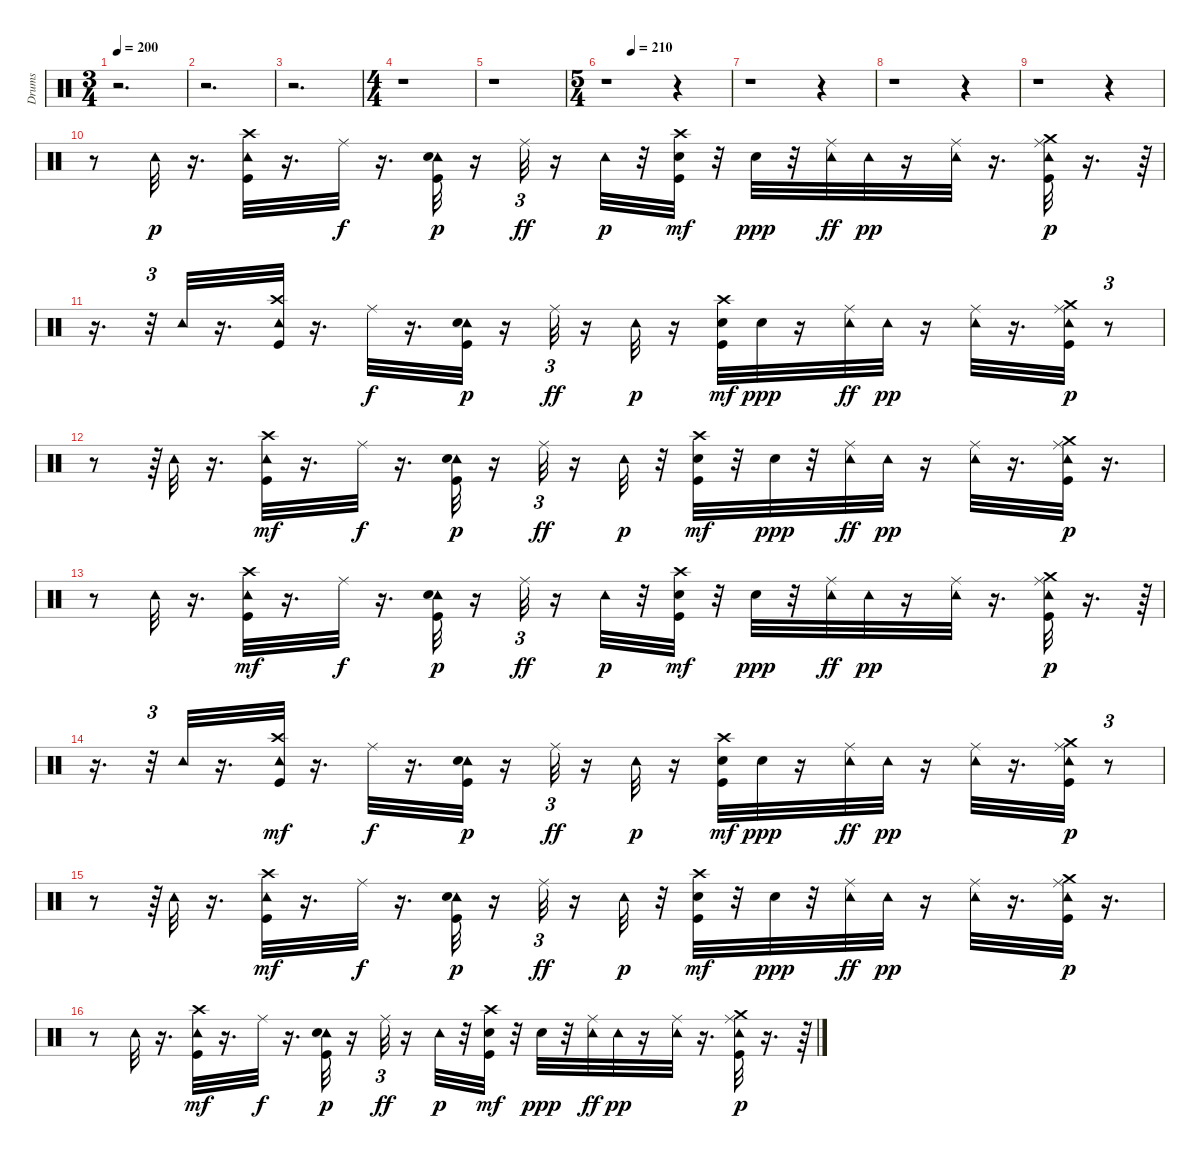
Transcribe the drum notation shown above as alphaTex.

\track ("Drums" "Drums") {instrument percussion}
\staff {score}
\articulation defaults
\ts (3 4)
\tempo 200
\clef neutral
\ks c
r.2{d dy f} |
r.2{d} |
r.2{d} |
\ts (4 4)
r.1 |
r.1 |
\ts (5 4)
\tempo (210 0.20833333333333334)
r.1 r.4 |
r.1 r.4 |
r.1 r.4 |
r.1 r.4 |
r.8 "Tambourine (hit)".32{dy p} r.16{d} ("Crash high (hit)" "Tambourine (hit)" "Kick (hit)").32 r.16{d} "Ride (middle)".32{dy f} r.16{d} ("Tambourine (hit)" "Snare (hit) 2" "Kick (hit)").32{dy p} r.16 "Ride (middle)".32{tu (3 2) dy ff} r.16 "Tambourine (hit)".32{dy p} r.32 ("Kick (hit)" "Snare (hit) 2" "Crash high (hit)").32{dy mf} r.32 "Snare (hit)".32{dy ppp} r.32 ("Tambourine (hit)" "Ride (middle)").32{dy ff} "Tambourine (hit)".32{dy pp} r.16 ("Ride (middle)" "Tambourine (hit)").32 r.16{d} ("Crash medium (hit)" "Tambourine (hit)" "Ride (middle)" "Kick (hit)").32{dy p} r.16{d} r.64{tu (3 2)} |
r.16{d} r.32{tu (3 2)} "Tambourine (hit)".32 r.16{d} ("Crash high (hit)" "Tambourine (hit)" "Kick (hit)").32 r.16{d} "Ride (middle)".32{dy f} r.16{d} ("Tambourine (hit)" "Snare (hit) 2" "Kick (hit)").32{dy p} r.16 "Ride (middle)".32{tu (3 2) dy ff} r.16 "Tambourine (hit)".32{dy p} r.16 ("Kick (hit)" "Snare (hit) 2" "Crash high (hit)").32{dy mf} "Snare (hit)".32{dy ppp} r.16 ("Tambourine (hit)" "Ride (middle)").32{dy ff} "Tambourine (hit)".32{dy pp} r.16 ("Ride (middle)" "Tambourine (hit)").32 r.16{d} ("Crash medium (hit)" "Tambourine (hit)" "Ride (middle)" "Kick (hit)").32{dy p} r.8{tu (3 2)} |
r.8 r.64{tu (3 2)} "Tambourine (hit)".32 r.16{d} ("Tambourine (hit)" "Crash high (hit)" "Kick (hit)").32{dy mf} r.16{d} "Ride (middle)".32{dy f} r.16{d} ("Tambourine (hit)" "Snare (hit) 2" "Kick (hit)").32{dy p} r.16 "Ride (middle)".32{tu (3 2) dy ff} r.16 "Tambourine (hit)".32{dy p} r.32 ("Crash high (hit)" "Kick (hit)" "Snare (hit) 2").32{dy mf} r.32 "Snare (hit)".32{dy ppp} r.32 ("Tambourine (hit)" "Ride (middle)").32{dy ff} "Tambourine (hit)".32{dy pp} r.16 ("Ride (middle)" "Tambourine (hit)").32 r.16{d} ("Crash medium (hit)" "Tambourine (hit)" "Ride (middle)" "Kick (hit)").32{dy p} r.16{d} |
r.8 "Tambourine (hit)".32 r.16{d} ("Tambourine (hit)" "Crash high (hit)" "Kick (hit)").32{dy mf} r.16{d} "Ride (middle)".32{dy f} r.16{d} ("Tambourine (hit)" "Snare (hit) 2" "Kick (hit)").32{dy p} r.16 "Ride (middle)".32{tu (3 2) dy ff} r.16 "Tambourine (hit)".32{dy p} r.32 ("Crash high (hit)" "Kick (hit)" "Snare (hit) 2").32{dy mf} r.32 "Snare (hit)".32{dy ppp} r.32 ("Tambourine (hit)" "Ride (middle)").32{dy ff} "Tambourine (hit)".32{dy pp} r.16 ("Ride (middle)" "Tambourine (hit)").32 r.16{d} ("Crash medium (hit)" "Tambourine (hit)" "Ride (middle)" "Kick (hit)").32{dy p} r.16{d} r.64{tu (3 2)} |
r.16{d} r.32{tu (3 2)} "Tambourine (hit)".32 r.16{d} ("Tambourine (hit)" "Crash high (hit)" "Kick (hit)").32{dy mf} r.16{d} "Ride (middle)".32{dy f} r.16{d} ("Tambourine (hit)" "Snare (hit) 2" "Kick (hit)").32{dy p} r.16 "Ride (middle)".32{tu (3 2) dy ff} r.16 "Tambourine (hit)".32{dy p} r.16 ("Crash high (hit)" "Kick (hit)" "Snare (hit) 2").32{dy mf} "Snare (hit)".32{dy ppp} r.16 ("Tambourine (hit)" "Ride (middle)").32{dy ff} "Tambourine (hit)".32{dy pp} r.16 ("Ride (middle)" "Tambourine (hit)").32 r.16{d} ("Crash medium (hit)" "Tambourine (hit)" "Ride (middle)" "Kick (hit)").32{dy p} r.8{tu (3 2)} |
r.8 r.64{tu (3 2)} "Tambourine (hit)".32 r.16{d} ("Tambourine (hit)" "Crash high (hit)" "Kick (hit)").32{dy mf} r.16{d} "Ride (middle)".32{dy f} r.16{d} ("Tambourine (hit)" "Snare (hit) 2" "Kick (hit)").32{dy p} r.16 "Ride (middle)".32{tu (3 2) dy ff} r.16 "Tambourine (hit)".32{dy p} r.32 ("Crash high (hit)" "Kick (hit)" "Snare (hit) 2").32{dy mf} r.32 "Snare (hit)".32{dy ppp} r.32 ("Tambourine (hit)" "Ride (middle)").32{dy ff} "Tambourine (hit)".32{dy pp} r.16 ("Ride (middle)" "Tambourine (hit)").32 r.16{d} ("Crash medium (hit)" "Tambourine (hit)" "Ride (middle)" "Kick (hit)").32{dy p} r.16{d} |
r.8 "Tambourine (hit)".32 r.16{d} ("Tambourine (hit)" "Crash high (hit)" "Kick (hit)").32{dy mf} r.16{d} "Ride (middle)".32{dy f} r.16{d} ("Tambourine (hit)" "Snare (hit) 2" "Kick (hit)").32{dy p} r.16 "Ride (middle)".32{tu (3 2) dy ff} r.16 "Tambourine (hit)".32{dy p} r.32 ("Crash high (hit)" "Kick (hit)" "Snare (hit) 2").32{dy mf} r.32 "Snare (hit)".32{dy ppp} r.32 ("Tambourine (hit)" "Ride (middle)").32{dy ff} "Tambourine (hit)".32{dy pp} r.16 ("Ride (middle)" "Tambourine (hit)").32 r.16{d} ("Crash medium (hit)" "Tambourine (hit)" "Ride (middle)" "Kick (hit)").32{dy p} r.16{d} r.64{tu (3 2)}
